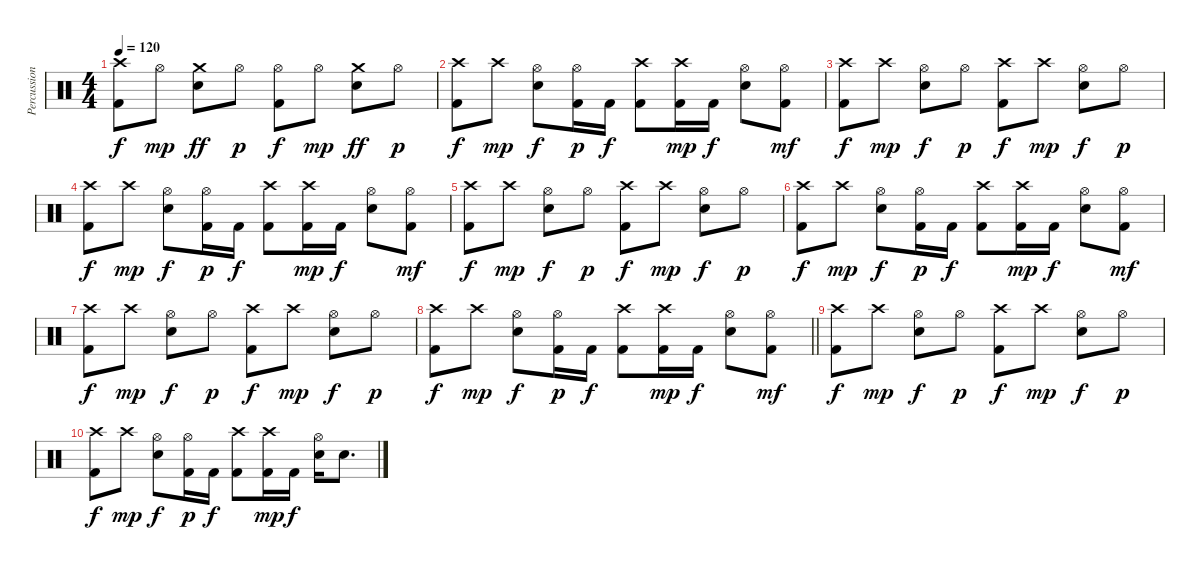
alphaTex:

\track ("Percussion" "Percussion") {instrument percussion}
\staff {score}
\articulation defaults
\ts (4 4)
\tempo 120
\clef neutral
\ks c
("Crash high (hit)" "Kick (hit) 2").8{dy f} "Hi-Hat (open)".8{dy mp} ("Crash medium (hit)" "Snare (hit) 2").8{dy ff} "Hi-Hat (open)".8{dy p} ("Hi-Hat (open)" "Kick (hit) 2").8{dy f} "Hi-Hat (open)".8{dy mp} ("Crash medium (hit)" "Electric Snare (hit)").8{dy ff} "Hi-Hat (open)".8{dy p} |
("Crash high (hit)" "Kick (hit) 2").8{dy f} "Crash high (hit)".8{dy mp} ("Hi-Hat (open)" "Electric Snare (hit)").8{dy f} ("Hi-Hat (open)" "Kick (hit) 2").16{dy p} "Kick (hit) 2".16{dy f} ("Crash high (hit)" "Kick (hit) 2").8 ("Crash high (hit)" "Kick (hit) 2").16{dy mp} "Kick (hit) 2".16{dy f} ("Hi-Hat (open)" "Electric Snare (hit)").8 ("Hi-Hat (open)" "Kick (hit) 2").8{dy mf} |
("Crash high (hit)" "Kick (hit) 2").8{dy f} "Crash high (hit)".8{dy mp} ("Hi-Hat (open)" "Electric Snare (hit)").8{dy f} "Hi-Hat (open)".8{dy p} ("Crash high (hit)" "Kick (hit) 2").8{dy f} "Crash high (hit)".8{dy mp} ("Hi-Hat (open)" "Electric Snare (hit)").8{dy f} "Hi-Hat (open)".8{dy p} |
("Crash high (hit)" "Kick (hit) 2").8{dy f} "Crash high (hit)".8{dy mp} ("Hi-Hat (open)" "Electric Snare (hit)").8{dy f} ("Hi-Hat (open)" "Kick (hit) 2").16{dy p} "Kick (hit) 2".16{dy f} ("Crash high (hit)" "Kick (hit) 2").8 ("Crash high (hit)" "Kick (hit) 2").16{dy mp} "Kick (hit) 2".16{dy f} ("Hi-Hat (open)" "Electric Snare (hit)").8 ("Hi-Hat (open)" "Kick (hit) 2").8{dy mf} |
("Crash high (hit)" "Kick (hit) 2").8{dy f} "Crash high (hit)".8{dy mp} ("Hi-Hat (open)" "Electric Snare (hit)").8{dy f} "Hi-Hat (open)".8{dy p} ("Crash high (hit)" "Kick (hit) 2").8{dy f} "Crash high (hit)".8{dy mp} ("Hi-Hat (open)" "Electric Snare (hit)").8{dy f} "Hi-Hat (open)".8{dy p} |
("Crash high (hit)" "Kick (hit) 2").8{dy f} "Crash high (hit)".8{dy mp} ("Hi-Hat (open)" "Electric Snare (hit)").8{dy f} ("Hi-Hat (open)" "Kick (hit) 2").16{dy p} "Kick (hit) 2".16{dy f} ("Crash high (hit)" "Kick (hit) 2").8 ("Crash high (hit)" "Kick (hit) 2").16{dy mp} "Kick (hit) 2".16{dy f} ("Hi-Hat (open)" "Electric Snare (hit)").8 ("Hi-Hat (open)" "Kick (hit) 2").8{dy mf} |
("Crash high (hit)" "Kick (hit) 2").8{dy f} "Crash high (hit)".8{dy mp} ("Hi-Hat (open)" "Electric Snare (hit)").8{dy f} "Hi-Hat (open)".8{dy p} ("Crash high (hit)" "Kick (hit) 2").8{dy f} "Crash high (hit)".8{dy mp} ("Hi-Hat (open)" "Electric Snare (hit)").8{dy f} "Hi-Hat (open)".8{dy p} |
\barLineRight lightlight
("Crash high (hit)" "Kick (hit) 2").8{dy f} "Crash high (hit)".8{dy mp} ("Hi-Hat (open)" "Electric Snare (hit)").8{dy f} ("Hi-Hat (open)" "Kick (hit) 2").16{dy p} "Kick (hit) 2".16{dy f} ("Crash high (hit)" "Kick (hit) 2").8 ("Crash high (hit)" "Kick (hit) 2").16{dy mp} "Kick (hit) 2".16{dy f} ("Hi-Hat (open)" "Electric Snare (hit)").8 ("Hi-Hat (open)" "Kick (hit) 2").8{dy mf} |
("Crash high (hit)" "Kick (hit) 2").8{dy f} "Crash high (hit)".8{dy mp} ("Hi-Hat (open)" "Electric Snare (hit)").8{dy f} "Hi-Hat (open)".8{dy p} ("Crash high (hit)" "Kick (hit) 2").8{dy f} "Crash high (hit)".8{dy mp} ("Hi-Hat (open)" "Electric Snare (hit)").8{dy f} "Hi-Hat (open)".8{dy p} |
("Crash high (hit)" "Kick (hit) 2").8{dy f} "Crash high (hit)".8{dy mp} ("Hi-Hat (open)" "Electric Snare (hit)").8{dy f} ("Hi-Hat (open)" "Kick (hit) 2").16{dy p} "Kick (hit) 2".16{dy f} ("Crash high (hit)" "Kick (hit) 2").8 ("Crash high (hit)" "Kick (hit) 2").16{dy mp} "Kick (hit) 2".16{dy f} ("Hi-Hat (open)" "Electric Snare (hit)").16 "Electric Snare (hit)".8{d}
